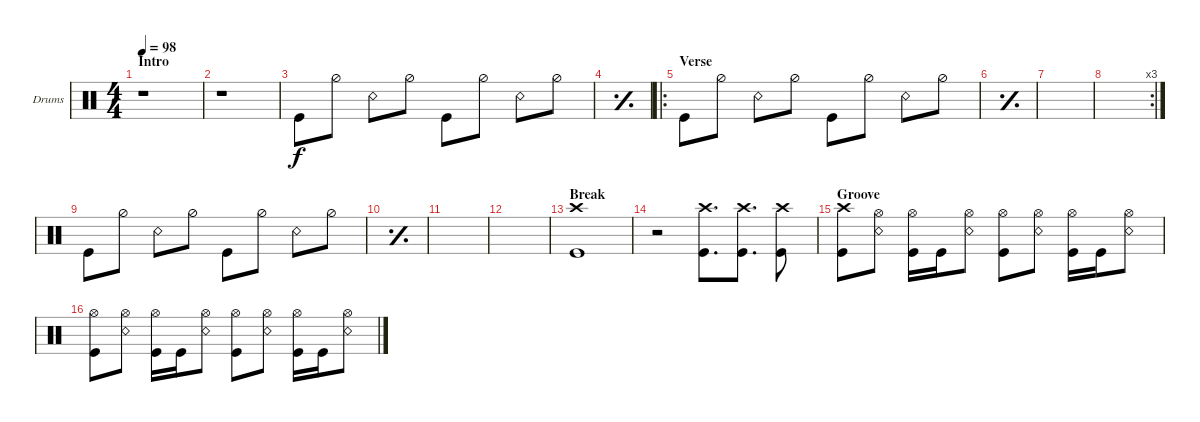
\defaultSystemsLayout 4
\bracketExtendMode groupsimilarinstruments
\firstSystemTrackNameOrientation horizontal
\otherSystemsTrackNameOrientation horizontal
\track ("Drumkit" "Drums") {instrument percussion}
\staff {score}
\articulation defaults
\ts (4 4)
\section ("" "Intro")
\tempo 98
\clef neutral
\ks c
r.1{dy f} |
r.1 |
"Kick (hit)".8 "Hi-Hat (half)".8 "Snare (rim shot)".8 "Hi-Hat (half)".8 "Kick (hit)".8 "Hi-Hat (half)".8 "Snare (rim shot)".8 "Hi-Hat (half)".8 |
\simile simple
|
\ro
\section ("" "Verse")
\simile none "Kick (hit)".8 "Hi-Hat (half)".8 "Snare (rim shot)".8 "Hi-Hat (half)".8 "Kick (hit)".8 "Hi-Hat (half)".8 "Snare (rim shot)".8 "Hi-Hat (half)".8
|
\simile simple
|
|
\rc 3
|
\simile none "Kick (hit)".8 "Hi-Hat (half)".8 "Snare (rim shot)".8 "Hi-Hat (half)".8 "Kick (hit)".8 "Hi-Hat (half)".8 "Snare (rim shot)".8 "Hi-Hat (half)".8
|
\simile simple
|
|
|
\section ("" "Break")
\simile none
("Kick (hit)" "Crash high (hit)").1 |
r.2 ("Kick (hit)" "Crash high (hit)").8{d} ("Kick (hit)" "Crash high (hit)").8{d} ("Kick (hit)" "Crash high (hit)").8 |
\section ("" "Groove")
("Kick (hit)" "Crash high (hit)").8 ("Hi-Hat (open)" "Snare (rim shot)").8 ("Hi-Hat (open)" "Kick (hit)").16 "Kick (hit)".16 ("Hi-Hat (open)" "Snare (rim shot)").8 ("Kick (hit)" "Hi-Hat (open)").8 ("Hi-Hat (open)" "Snare (rim shot)").8 ("Hi-Hat (open)" "Kick (hit)").16 "Kick (hit)".16 ("Hi-Hat (open)" "Snare (rim shot)").8 |
("Kick (hit)" "Hi-Hat (open)").8 ("Hi-Hat (open)" "Snare (rim shot)").8 ("Hi-Hat (open)" "Kick (hit)").16 "Kick (hit)".16 ("Hi-Hat (open)" "Snare (rim shot)").8 ("Kick (hit)" "Hi-Hat (open)").8 ("Hi-Hat (open)" "Snare (rim shot)").8 ("Hi-Hat (open)" "Kick (hit)").16 "Kick (hit)".16 ("Hi-Hat (open)" "Snare (rim shot)").8
